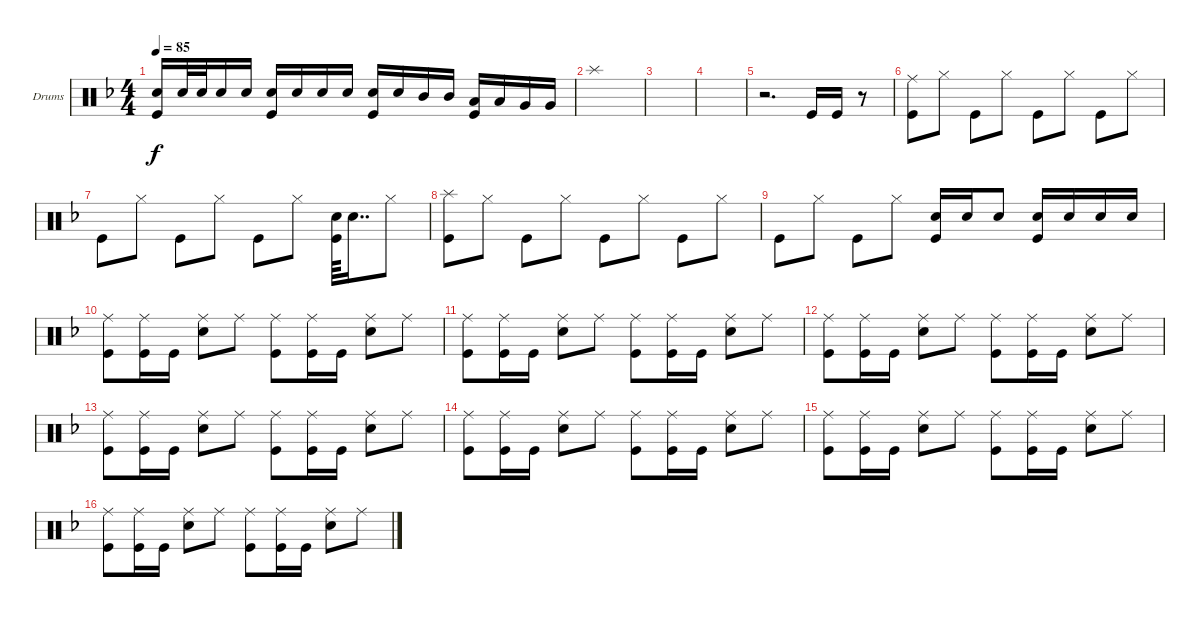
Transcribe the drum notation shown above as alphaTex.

\bracketExtendMode groupsimilarinstruments
\firstSystemTrackNameOrientation horizontal
\otherSystemsTrackNameOrientation horizontal
\track ("Drumkit" "Drums") {instrument percussion}
\staff {score}
\articulation defaults
\ts (4 4)
\tempo 85
\clef neutral
\ks dminor
("Snare (hit) 2" "Kick (hit)").16{dy f} "Snare (hit) 2".32 "Snare (hit) 2".32 "Snare (hit) 2".16 "Snare (hit) 2".16 ("Snare (hit) 2" "Kick (hit)").16 "Snare (hit) 2".16 "Snare (hit) 2".16 "Snare (hit) 2".16 ("Snare (hit) 2" "Kick (hit)").16 "Snare (hit) 2".16 "Mid Tom (hit)".16 "Mid Tom (hit)".16 ("Low Tom (hit)" "Kick (hit)").16 "Low Tom (hit)".16 "Very Low Tom (hit)".16 "Very Low Tom (hit)".16 |
"Splash (hit)".1 |
|
|
r.2{d} "Kick (hit)".16 "Kick (hit)".16 r.8 |
("Kick (hit)" "Ride (middle)").8 "Hi-Hat (closed)".8 "Kick (hit)".8 "Hi-Hat (closed)".8 "Kick (hit)".8 "Hi-Hat (closed)".8 "Kick (hit)".8 "Hi-Hat (closed)".8 |
"Kick (hit)".8 "Hi-Hat (closed)".8 "Kick (hit)".8 "Hi-Hat (closed)".8 "Kick (hit)".8 "Hi-Hat (closed)".8 ("Kick (hit)" "Snare (hit) 2").64 "Snare (hit) 2".16{dd} "Hi-Hat (closed)".8 |
("Kick (hit)" "Splash (hit)").8 "Hi-Hat (closed)".8 "Kick (hit)".8 "Hi-Hat (closed)".8 "Kick (hit)".8 "Hi-Hat (closed)".8 "Kick (hit)".8 "Hi-Hat (closed)".8 |
"Kick (hit)".8 "Hi-Hat (closed)".8 "Kick (hit)".8 "Hi-Hat (closed)".8 ("Kick (hit)" "Snare (hit) 2").16 "Snare (hit) 2".16 "Snare (hit) 2".8 ("Kick (hit)" "Snare (hit) 2").16 "Snare (hit) 2".16 "Snare (hit) 2".16 "Snare (hit) 2".16 |
("Kick (hit)" "Ride (middle)").8 ("Kick (hit)" "Ride (middle)").16 "Kick (hit)".16 ("Snare (hit) 2" "Ride (middle)").8 "Ride (middle)".8 ("Kick (hit)" "Ride (middle)").8 ("Kick (hit)" "Ride (middle)").16 "Kick (hit)".16 ("Snare (hit) 2" "Ride (middle)").8 "Ride (middle)".8 |
("Kick (hit)" "Ride (middle)").8 ("Kick (hit)" "Ride (middle)").16 "Kick (hit)".16 ("Snare (hit) 2" "Ride (middle)").8 "Ride (middle)".8 ("Kick (hit)" "Ride (middle)").8 ("Kick (hit)" "Ride (middle)").16 "Kick (hit)".16 ("Snare (hit) 2" "Ride (middle)").8 "Ride (middle)".8 |
("Kick (hit)" "Ride (middle)").8 ("Kick (hit)" "Ride (middle)").16 "Kick (hit)".16 ("Snare (hit) 2" "Ride (middle)").8 "Ride (middle)".8 ("Kick (hit)" "Ride (middle)").8 ("Kick (hit)" "Ride (middle)").16 "Kick (hit)".16 ("Snare (hit) 2" "Ride (middle)").8 "Ride (middle)".8 |
("Kick (hit)" "Ride (middle)").8 ("Kick (hit)" "Ride (middle)").16 "Kick (hit)".16 ("Snare (hit) 2" "Ride (middle)").8 "Ride (middle)".8 ("Kick (hit)" "Ride (middle)").8 ("Kick (hit)" "Ride (middle)").16 "Kick (hit)".16 ("Snare (hit) 2" "Ride (middle)").8 "Ride (middle)".8 |
("Kick (hit)" "Ride (middle)").8 ("Kick (hit)" "Ride (middle)").16 "Kick (hit)".16 ("Snare (hit) 2" "Ride (middle)").8 "Ride (middle)".8 ("Kick (hit)" "Ride (middle)").8 ("Kick (hit)" "Ride (middle)").16 "Kick (hit)".16 ("Snare (hit) 2" "Ride (middle)").8 "Ride (middle)".8 |
("Kick (hit)" "Ride (middle)").8 ("Kick (hit)" "Ride (middle)").16 "Kick (hit)".16 ("Snare (hit) 2" "Ride (middle)").8 "Ride (middle)".8 ("Kick (hit)" "Ride (middle)").8 ("Kick (hit)" "Ride (middle)").16 "Kick (hit)".16 ("Snare (hit) 2" "Ride (middle)").8 "Ride (middle)".8 |
("Kick (hit)" "Ride (middle)").8 ("Kick (hit)" "Ride (middle)").16 "Kick (hit)".16 ("Snare (hit) 2" "Ride (middle)").8 "Ride (middle)".8 ("Kick (hit)" "Ride (middle)").8 ("Kick (hit)" "Ride (middle)").16 "Kick (hit)".16 ("Snare (hit) 2" "Ride (middle)").8 "Ride (middle)".8
